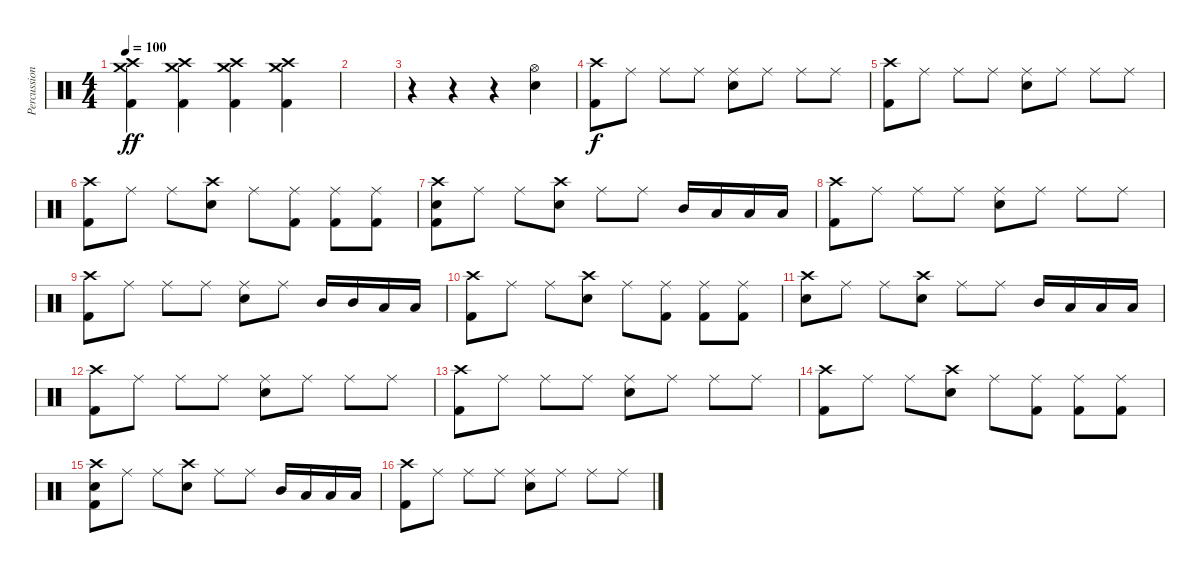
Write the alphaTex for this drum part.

\track ("Percussion" "Percussion") {instrument percussion}
\staff {score}
\articulation defaults
\ts (4 4)
\tempo 100
\clef neutral
\ks c
("Crash medium (hit)" "Crash high (hit)" "Kick (hit) 2").4{dy ff} ("Crash medium (hit)" "Crash high (hit)" "Kick (hit) 2").4 ("Crash medium (hit)" "Crash high (hit)" "Kick (hit) 2").4 ("Crash medium (hit)" "Crash high (hit)" "Kick (hit) 2").4 |
|
r.4 r.4 r.4 ("Hi-Hat (open)" "Electric Snare (hit)").4 |
("Crash high (hit)" "Kick (hit) 2").8{dy f} "Ride (middle)".8 "Ride (middle)".8 "Ride (middle)".8 ("Ride (middle)" "Electric Snare (hit)").8 "Ride (middle)".8 "Ride (middle)".8 "Ride (middle)".8 |
("Crash high (hit)" "Kick (hit) 2").8 "Ride (middle)".8 "Ride (middle)".8 "Ride (middle)".8 ("Ride (middle)" "Electric Snare (hit)").8 "Ride (middle)".8 "Ride (middle)".8 "Ride (middle)".8 |
("Crash high (hit)" "Kick (hit) 2").8 "Ride (middle)".8 "Ride (middle)".8 ("Crash high (hit)" "Electric Snare (hit)").8 "Ride (middle)".8 ("Ride (middle)" "Kick (hit) 2").8 ("Ride (middle)" "Kick (hit) 2").8 ("Ride (middle)" "Kick (hit) 2").8 |
("Crash high (hit)" "Electric Snare (hit)" "Kick (hit) 2").8 "Ride (middle)".8 "Ride (middle)".8 ("Crash high (hit)" "Electric Snare (hit)").8 "Ride (middle)".8 "Ride (middle)".8 "Mid Tom (hit)".16 "Low Tom (hit)".16 "Low Tom (hit)".16 "Low Tom (hit)".16 |
("Crash high (hit)" "Kick (hit) 2").8 "Ride (middle)".8 "Ride (middle)".8 "Ride (middle)".8 ("Ride (middle)" "Electric Snare (hit)").8 "Ride (middle)".8 "Ride (middle)".8 "Ride (middle)".8 |
("Crash high (hit)" "Kick (hit) 2").8 "Ride (middle)".8 "Ride (middle)".8 "Ride (middle)".8 ("Ride (middle)" "Electric Snare (hit)").8 "Ride (middle)".8 "Mid Tom (hit)".16 "Mid Tom (hit)".16 "Low Tom (hit)".16 "Low Tom (hit)".16 |
("Crash high (hit)" "Kick (hit) 2").8 "Ride (middle)".8 "Ride (middle)".8 ("Crash high (hit)" "Electric Snare (hit)").8 "Ride (middle)".8 ("Ride (middle)" "Kick (hit) 2").8 ("Ride (middle)" "Kick (hit) 2").8 ("Ride (middle)" "Kick (hit) 2").8 |
("Crash high (hit)" "Electric Snare (hit)").8 "Ride (middle)".8 "Ride (middle)".8 ("Crash high (hit)" "Electric Snare (hit)").8 "Ride (middle)".8 "Ride (middle)".8 "Mid Tom (hit)".16 "Low Tom (hit)".16 "Low Tom (hit)".16 "Low Tom (hit)".16 |
("Crash high (hit)" "Kick (hit) 2").8 "Ride (middle)".8 "Ride (middle)".8 "Ride (middle)".8 ("Ride (middle)" "Electric Snare (hit)").8 "Ride (middle)".8 "Ride (middle)".8 "Ride (middle)".8 |
("Crash high (hit)" "Kick (hit) 2").8 "Ride (middle)".8 "Ride (middle)".8 "Ride (middle)".8 ("Ride (middle)" "Electric Snare (hit)").8 "Ride (middle)".8 "Ride (middle)".8 "Ride (middle)".8 |
("Crash high (hit)" "Kick (hit) 2").8 "Ride (middle)".8 "Ride (middle)".8 ("Crash high (hit)" "Electric Snare (hit)").8 "Ride (middle)".8 ("Ride (middle)" "Kick (hit) 2").8 ("Ride (middle)" "Kick (hit) 2").8 ("Ride (middle)" "Kick (hit) 2").8 |
("Crash high (hit)" "Electric Snare (hit)" "Kick (hit) 2").8 "Ride (middle)".8 "Ride (middle)".8 ("Crash high (hit)" "Electric Snare (hit)").8 "Ride (middle)".8 "Ride (middle)".8 "Mid Tom (hit)".16 "Low Tom (hit)".16 "Low Tom (hit)".16 "Low Tom (hit)".16 |
("Crash high (hit)" "Kick (hit) 2").8 "Ride (middle)".8 "Ride (middle)".8 "Ride (middle)".8 ("Ride (middle)" "Electric Snare (hit)").8 "Ride (middle)".8 "Ride (middle)".8 "Ride (middle)".8
